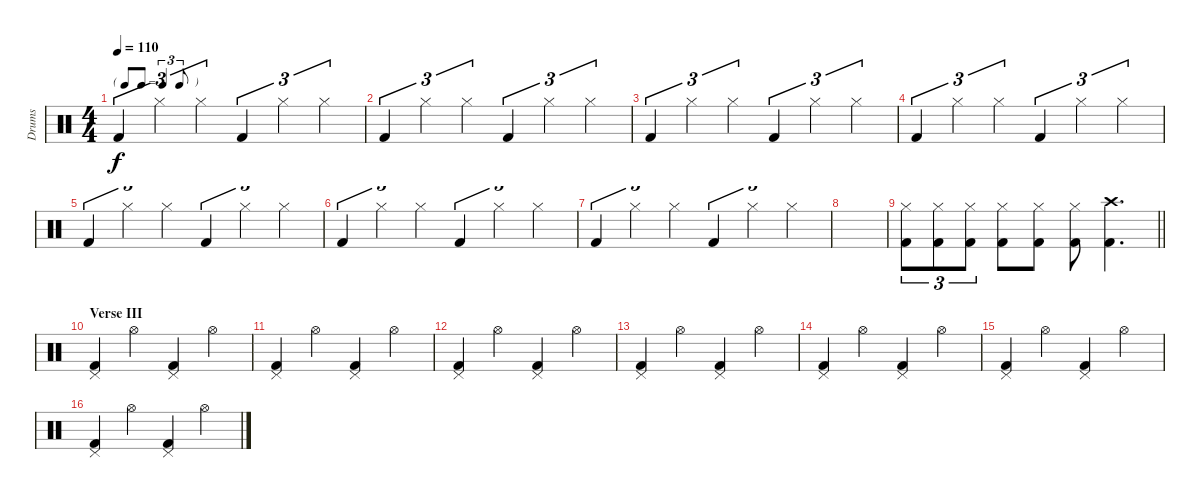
\track ("Drums" "Drums") {instrument percussion}
\staff {score}
\articulation defaults
\ts (4 4)
\tf triplet8th
\tempo 110
\clef neutral
\ks c "Kick (hit) 2".4{tu (3 2) dy f} "Hi-Hat (closed)".4{tu (3 2)} "Hi-Hat (closed)".4{tu (3 2)} "Kick (hit) 2".4{tu (3 2)} "Hi-Hat (closed)".4{tu (3 2)} "Hi-Hat (closed)".4{tu (3 2)}
|
"Kick (hit) 2".4{tu (3 2)} "Hi-Hat (closed)".4{tu (3 2)} "Hi-Hat (closed)".4{tu (3 2)} "Kick (hit) 2".4{tu (3 2)} "Hi-Hat (closed)".4{tu (3 2)} "Hi-Hat (closed)".4{tu (3 2)} |
"Kick (hit) 2".4{tu (3 2)} "Hi-Hat (closed)".4{tu (3 2)} "Hi-Hat (closed)".4{tu (3 2)} "Kick (hit) 2".4{tu (3 2)} "Hi-Hat (closed)".4{tu (3 2)} "Hi-Hat (closed)".4{tu (3 2)} |
"Kick (hit) 2".4{tu (3 2)} "Hi-Hat (closed)".4{tu (3 2)} "Hi-Hat (closed)".4{tu (3 2)} "Kick (hit) 2".4{tu (3 2)} "Hi-Hat (closed)".4{tu (3 2)} "Hi-Hat (closed)".4{tu (3 2)} |
"Kick (hit) 2".4{tu (3 2)} "Hi-Hat (closed)".4{tu (3 2)} "Hi-Hat (closed)".4{tu (3 2)} "Kick (hit) 2".4{tu (3 2)} "Hi-Hat (closed)".4{tu (3 2)} "Hi-Hat (closed)".4{tu (3 2)} |
"Kick (hit) 2".4{tu (3 2)} "Hi-Hat (closed)".4{tu (3 2)} "Hi-Hat (closed)".4{tu (3 2)} "Kick (hit) 2".4{tu (3 2)} "Hi-Hat (closed)".4{tu (3 2)} "Hi-Hat (closed)".4{tu (3 2)} |
"Kick (hit) 2".4{tu (3 2)} "Hi-Hat (closed)".4{tu (3 2)} "Hi-Hat (closed)".4{tu (3 2)} "Kick (hit) 2".4{tu (3 2)} "Hi-Hat (closed)".4{tu (3 2)} "Hi-Hat (closed)".4{tu (3 2)} |
|
\barLineRight lightlight
("Hi-Hat (closed)" "Kick (hit) 2").8{tu (3 2)} ("Hi-Hat (closed)" "Kick (hit) 2").8{tu (3 2)} ("Hi-Hat (closed)" "Kick (hit) 2").8{tu (3 2)} ("Hi-Hat (closed)" "Kick (hit) 2").8 ("Hi-Hat (closed)" "Kick (hit) 2").8 ("Hi-Hat (closed)" "Kick (hit) 2").8 ("Crash high (hit)" "Kick (hit) 2").4{d} |
\section ("" "Verse III")
("Pedal Hi-Hat (hit)" "Kick (hit) 2").4 "Hi-Hat (open)".4 ("Pedal Hi-Hat (hit)" "Kick (hit) 2").4 "Hi-Hat (open)".4 |
("Pedal Hi-Hat (hit)" "Kick (hit) 2").4 "Hi-Hat (open)".4 ("Pedal Hi-Hat (hit)" "Kick (hit) 2").4 "Hi-Hat (open)".4 |
("Pedal Hi-Hat (hit)" "Kick (hit) 2").4 "Hi-Hat (open)".4 ("Pedal Hi-Hat (hit)" "Kick (hit) 2").4 "Hi-Hat (open)".4 |
("Pedal Hi-Hat (hit)" "Kick (hit) 2").4 "Hi-Hat (open)".4 ("Pedal Hi-Hat (hit)" "Kick (hit) 2").4 "Hi-Hat (open)".4 |
("Pedal Hi-Hat (hit)" "Kick (hit) 2").4 "Hi-Hat (open)".4 ("Pedal Hi-Hat (hit)" "Kick (hit) 2").4 "Hi-Hat (open)".4 |
("Pedal Hi-Hat (hit)" "Kick (hit) 2").4 "Hi-Hat (open)".4 ("Pedal Hi-Hat (hit)" "Kick (hit) 2").4 "Hi-Hat (open)".4 |
("Pedal Hi-Hat (hit)" "Kick (hit) 2").4 "Hi-Hat (open)".4 ("Pedal Hi-Hat (hit)" "Kick (hit) 2").4 "Hi-Hat (open)".4
